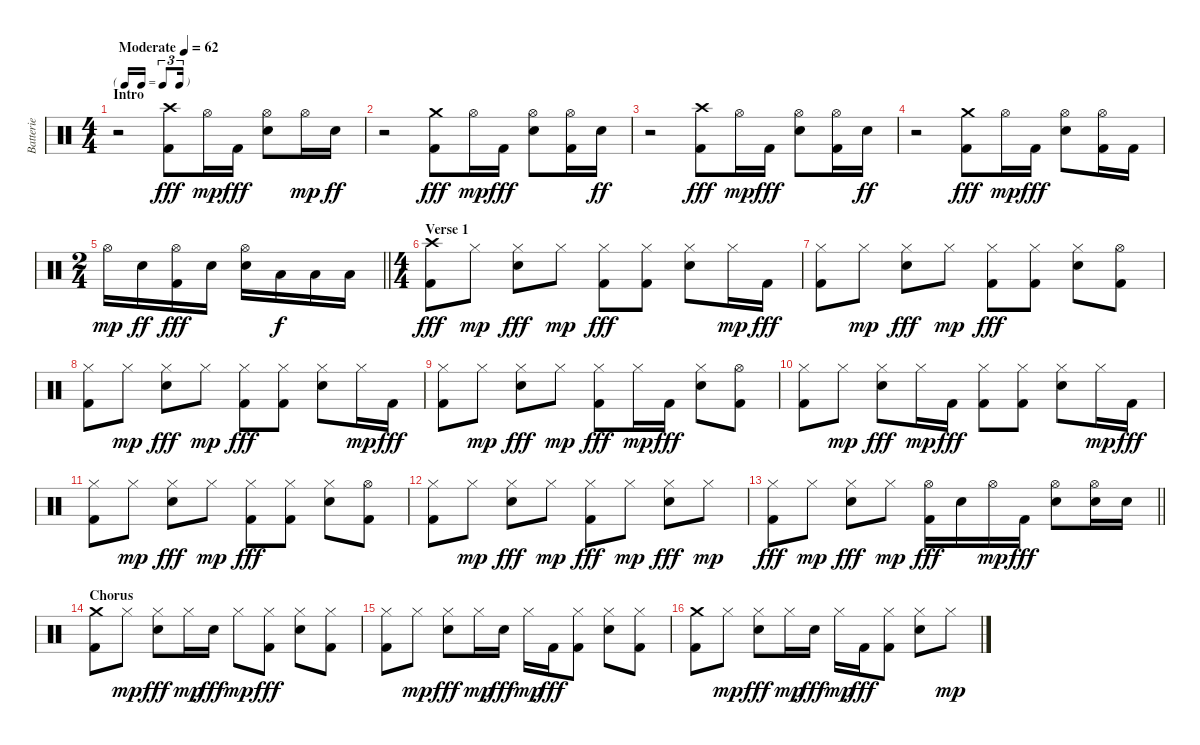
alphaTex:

\track ("Batterie" "Batterie") {instrument percussion}
\staff {score}
\articulation defaults
\ts (4 4)
\tf triplet16th
\section ("" "Intro")
\tempo (62 "Moderate")
\clef neutral
\ks c
r.2{dy fff} ("Crash high (hit)" "Kick (hit) 2").8 "Hi-Hat (open)".16{dy mp} "Kick (hit) 2".16{dy fff} ("Hi-Hat (open)" "Snare (hit) 2").8 "Hi-Hat (open)".16{dy mp} "Snare (hit) 2".16{dy ff} |
r.2 ("Crash medium (hit)" "Kick (hit) 2").8{dy fff} "Hi-Hat (open)".16{dy mp} "Kick (hit) 2".16{dy fff} ("Hi-Hat (open)" "Snare (hit) 2").8 ("Hi-Hat (open)" "Kick (hit) 2").16 "Snare (hit) 2".16{dy ff} |
r.2 ("Crash high (hit)" "Kick (hit) 2").8{dy fff} "Hi-Hat (open)".16{dy mp} "Kick (hit) 2".16{dy fff} ("Hi-Hat (open)" "Snare (hit) 2").8 ("Hi-Hat (open)" "Kick (hit) 2").16 "Snare (hit) 2".16{dy ff} |
r.2 ("Crash medium (hit)" "Kick (hit) 2").8{dy fff} "Hi-Hat (open)".16{dy mp} "Kick (hit) 2".16{dy fff} ("Hi-Hat (open)" "Snare (hit) 2").8 ("Hi-Hat (open)" "Kick (hit) 2").16 "Kick (hit) 2".16 |
\ts (2 4)
\barLineRight lightlight "Hi-Hat (open)".16{dy mp} "Snare (hit) 2".16{dy ff}
("Hi-Hat (open)" "Kick (hit) 2").16{dy fff} "Snare (hit) 2".16 ("Hi-Hat (open)" "Snare (hit) 2").16 "Low Tom (hit)".16{dy f} "Low Tom (hit)".16 "Low Floor Tom (hit)".16 |
\ts (4 4)
\section ("" "Verse 1")
("Crash high (hit)" "Kick (hit) 2").8{dy fff} "Hi-Hat (closed)".8{dy mp} ("Hi-Hat (closed)" "Snare (hit) 2").8{dy fff} "Hi-Hat (closed)".8{dy mp} ("Hi-Hat (closed)" "Kick (hit) 2").8{dy fff} ("Hi-Hat (closed)" "Kick (hit) 2").8 ("Hi-Hat (closed)" "Snare (hit) 2").8 "Hi-Hat (closed)".16{dy mp} "Kick (hit) 2".16{dy fff} |
("Hi-Hat (closed)" "Kick (hit) 2").8 "Hi-Hat (closed)".8{dy mp} ("Hi-Hat (closed)" "Snare (hit) 2").8{dy fff} "Hi-Hat (closed)".8{dy mp} ("Hi-Hat (closed)" "Kick (hit) 2").8{dy fff} ("Hi-Hat (closed)" "Kick (hit) 2").8 ("Hi-Hat (closed)" "Snare (hit) 2").8 ("Hi-Hat (open)" "Kick (hit) 2").8 |
("Hi-Hat (closed)" "Kick (hit) 2").8 "Hi-Hat (closed)".8{dy mp} ("Hi-Hat (closed)" "Snare (hit) 2").8{dy fff} "Hi-Hat (closed)".8{dy mp} ("Hi-Hat (closed)" "Kick (hit) 2").8{dy fff} ("Hi-Hat (closed)" "Kick (hit) 2").8 ("Hi-Hat (closed)" "Snare (hit) 2").8 "Hi-Hat (closed)".16{dy mp} "Kick (hit) 2".16{dy fff} |
("Hi-Hat (closed)" "Kick (hit) 2").8 "Hi-Hat (closed)".8{dy mp} ("Hi-Hat (closed)" "Snare (hit) 2").8{dy fff} "Hi-Hat (closed)".8{dy mp} ("Hi-Hat (closed)" "Kick (hit) 2").8{dy fff} "Hi-Hat (closed)".16{dy mp} "Kick (hit) 2".16{dy fff} ("Hi-Hat (closed)" "Snare (hit) 2").8 ("Hi-Hat (open)" "Kick (hit) 2").8 |
("Hi-Hat (closed)" "Kick (hit) 2").8 "Hi-Hat (closed)".8{dy mp} ("Hi-Hat (closed)" "Snare (hit) 2").8{dy fff} "Hi-Hat (closed)".16{dy mp} "Kick (hit) 2".16{dy fff} ("Hi-Hat (closed)" "Kick (hit) 2").8 ("Hi-Hat (closed)" "Kick (hit) 2").8 ("Hi-Hat (closed)" "Snare (hit) 2").8 "Hi-Hat (closed)".16{dy mp} "Kick (hit) 2".16{dy fff} |
("Hi-Hat (closed)" "Kick (hit) 2").8 "Hi-Hat (closed)".8{dy mp} ("Hi-Hat (closed)" "Snare (hit) 2").8{dy fff} "Hi-Hat (closed)".8{dy mp} ("Hi-Hat (closed)" "Kick (hit) 2").8{dy fff} ("Hi-Hat (closed)" "Kick (hit) 2").8 ("Hi-Hat (closed)" "Snare (hit) 2").8 ("Hi-Hat (open)" "Kick (hit) 2").8 |
("Hi-Hat (closed)" "Kick (hit) 2").8 "Hi-Hat (closed)".8{dy mp} ("Hi-Hat (closed)" "Snare (hit) 2").8{dy fff} "Hi-Hat (closed)".8{dy mp} ("Hi-Hat (closed)" "Kick (hit) 2").8{dy fff} "Hi-Hat (closed)".8{dy mp} ("Hi-Hat (closed)" "Snare (hit) 2").8{dy fff} "Hi-Hat (closed)".8{dy mp} |
\barLineRight lightlight
("Hi-Hat (closed)" "Kick (hit) 2").8{dy fff} "Hi-Hat (closed)".8{dy mp} ("Hi-Hat (closed)" "Snare (hit) 2").8{dy fff} "Hi-Hat (closed)".8{dy mp} ("Hi-Hat (open)" "Kick (hit) 2").16{dy fff} "Snare (hit) 2".16 "Hi-Hat (open)".16{dy mp} "Kick (hit) 2".16{dy fff} ("Hi-Hat (open)" "Snare (hit) 2").8 ("Hi-Hat (open)" "Snare (hit) 2").16 "Snare (hit) 2".16 |
\section ("" "Chorus")
("Crash medium (hit)" "Kick (hit) 2").8 "Hi-Hat (closed)".8{dy mp} ("Hi-Hat (closed)" "Snare (hit) 2").8{dy fff} "Hi-Hat (closed)".16{dy mp} "Snare (hit) 2".16{dy fff} "Hi-Hat (closed)".8{dy mp} ("Hi-Hat (closed)" "Kick (hit) 2").8{dy fff} ("Hi-Hat (closed)" "Snare (hit) 2").8 ("Hi-Hat (closed)" "Kick (hit) 2").8 |
("Hi-Hat (closed)" "Kick (hit) 2").8 "Hi-Hat (closed)".8{dy mp} ("Hi-Hat (closed)" "Snare (hit) 2").8{dy fff} "Hi-Hat (closed)".16{dy mp} "Snare (hit) 2".16{dy fff} "Hi-Hat (closed)".16{dy mp} "Kick (hit) 2".16{dy fff} ("Hi-Hat (closed)" "Kick (hit) 2").8 ("Hi-Hat (closed)" "Snare (hit) 2").8 ("Hi-Hat (closed)" "Kick (hit) 2").8 |
("Crash medium (hit)" "Kick (hit) 2").8 "Hi-Hat (closed)".8{dy mp} ("Hi-Hat (closed)" "Snare (hit) 2").8{dy fff} "Hi-Hat (closed)".16{dy mp} "Snare (hit) 2".16{dy fff} "Hi-Hat (closed)".16{dy mp} "Kick (hit) 2".16{dy fff} ("Hi-Hat (closed)" "Kick (hit) 2").8 ("Hi-Hat (closed)" "Snare (hit) 2").8 "Hi-Hat (closed)".8{dy mp}
